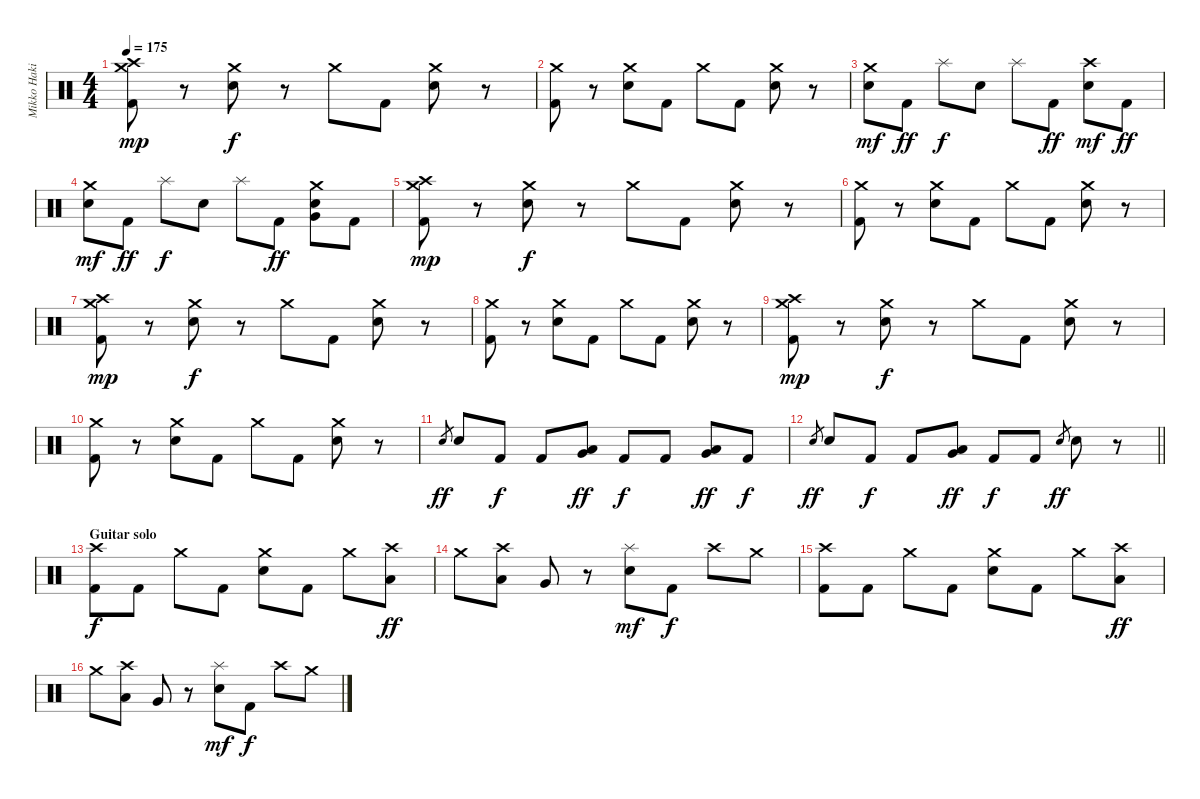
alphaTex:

\track ("Mikko Hakila - Drums" "Mikko Haki") {instrument percussion}
\staff {score}
\articulation defaults
\ts (4 4)
\tempo 175
\clef neutral
\ks c
("Crash medium (hit)" "Crash high (hit)" "Kick (hit) 2").8{dy mp} r.8 ("Crash medium (hit)" "Electric Snare (hit)").8{dy f} r.8 "Crash medium (hit)".8 "Kick (hit) 2".8 ("Crash medium (hit)" "Electric Snare (hit)").8 r.8 |
("Crash medium (hit)" "Kick (hit) 2").8 r.8 ("Crash medium (hit)" "Electric Snare (hit)").8 "Kick (hit) 2".8 "Crash medium (hit)".8 "Kick (hit) 2".8 ("Crash medium (hit)" "Electric Snare (hit)").8 r.8 |
("Crash medium (hit)" "Electric Snare (hit)").8{dy mf} "Kick (hit) 2".8{dy ff} "Splash (hit)".8{dy f} "Electric Snare (hit)".8 "Splash (hit)".8 "Kick (hit) 2".8{dy ff} ("Crash high (hit)" "Electric Snare (hit)").8{dy mf} "Kick (hit) 2".8{dy ff} |
("Crash medium (hit)" "Electric Snare (hit)").8{dy mf} "Kick (hit) 2".8{dy ff} "Splash (hit)".8{dy f} "Electric Snare (hit)".8 "Splash (hit)".8 "Kick (hit) 2".8{dy ff} ("Crash medium (hit)" "Electric Snare (hit)" "Very Low Tom (hit)").8 "Kick (hit) 2".8 |
("Crash medium (hit)" "Crash high (hit)" "Kick (hit) 2").8{dy mp} r.8 ("Crash medium (hit)" "Electric Snare (hit)").8{dy f} r.8 "Crash medium (hit)".8 "Kick (hit) 2".8 ("Crash medium (hit)" "Electric Snare (hit)").8 r.8 |
("Crash medium (hit)" "Kick (hit) 2").8 r.8 ("Crash medium (hit)" "Electric Snare (hit)").8 "Kick (hit) 2".8 "Crash medium (hit)".8 "Kick (hit) 2".8 ("Crash medium (hit)" "Electric Snare (hit)").8 r.8 |
("Crash medium (hit)" "Crash high (hit)" "Kick (hit) 2").8{dy mp} r.8 ("Crash medium (hit)" "Electric Snare (hit)").8{dy f} r.8 "Crash medium (hit)".8 "Kick (hit) 2".8 ("Crash medium (hit)" "Electric Snare (hit)").8 r.8 |
("Crash medium (hit)" "Kick (hit) 2").8 r.8 ("Crash medium (hit)" "Electric Snare (hit)").8 "Kick (hit) 2".8 "Crash medium (hit)".8 "Kick (hit) 2".8 ("Crash medium (hit)" "Electric Snare (hit)").8 r.8 |
("Crash medium (hit)" "Crash high (hit)" "Kick (hit) 2").8{dy mp} r.8 ("Crash medium (hit)" "Electric Snare (hit)").8{dy f} r.8 "Crash medium (hit)".8 "Kick (hit) 2".8 ("Crash medium (hit)" "Electric Snare (hit)").8 r.8 |
("Crash medium (hit)" "Kick (hit) 2").8 r.8 ("Crash medium (hit)" "Electric Snare (hit)").8 "Kick (hit) 2".8 "Crash medium (hit)".8 "Kick (hit) 2".8 ("Crash medium (hit)" "Electric Snare (hit)").8 r.8 |
"Electric Snare (hit)".8{gr dy ff} "Electric Snare (hit)".8 "Kick (hit) 2".8{dy f} "Kick (hit) 2".8 ("Low Tom (hit)" "Very Low Tom (hit)").8{dy ff} "Kick (hit) 2".8{dy f} "Kick (hit) 2".8 ("Low Tom (hit)" "Very Low Tom (hit)").8{dy ff} "Kick (hit) 2".8{dy f} |
\barLineRight lightlight "Electric Snare (hit)".8{gr dy ff} "Electric Snare (hit)".8 "Kick (hit) 2".8{dy f} "Kick (hit) 2".8
("Low Tom (hit)" "Very Low Tom (hit)").8{dy ff} "Kick (hit) 2".8{dy f} "Kick (hit) 2".8 "Electric Snare (hit)".8{gr dy ff} "Electric Snare (hit)".8 r.8 |
\section ("" "Guitar solo")
("Crash high (hit)" "Kick (hit) 2").8{dy f} "Kick (hit) 2".8 "Crash medium (hit)".8 "Kick (hit) 2".8 ("Crash medium (hit)" "Electric Snare (hit)").8 "Kick (hit) 2".8 "Crash medium (hit)".8 ("Crash high (hit)" "Low Tom (hit)").8{dy ff} |
"Crash medium (hit)".8 ("Crash high (hit)" "Low Tom (hit)").8 "Very Low Tom (hit)".8 r.8 ("Splash (hit)" "Electric Snare (hit)").8{dy mf} "Kick (hit) 2".8{dy f} "Crash high (hit)".8 "Crash medium (hit)".8 |
("Crash high (hit)" "Kick (hit) 2").8 "Kick (hit) 2".8 "Crash medium (hit)".8 "Kick (hit) 2".8 ("Crash medium (hit)" "Electric Snare (hit)").8 "Kick (hit) 2".8 "Crash medium (hit)".8 ("Crash high (hit)" "Low Tom (hit)").8{dy ff} |
"Crash medium (hit)".8 ("Crash high (hit)" "Low Tom (hit)").8 "Very Low Tom (hit)".8 r.8 ("Splash (hit)" "Electric Snare (hit)").8{dy mf} "Kick (hit) 2".8{dy f} "Crash high (hit)".8 "Crash medium (hit)".8
